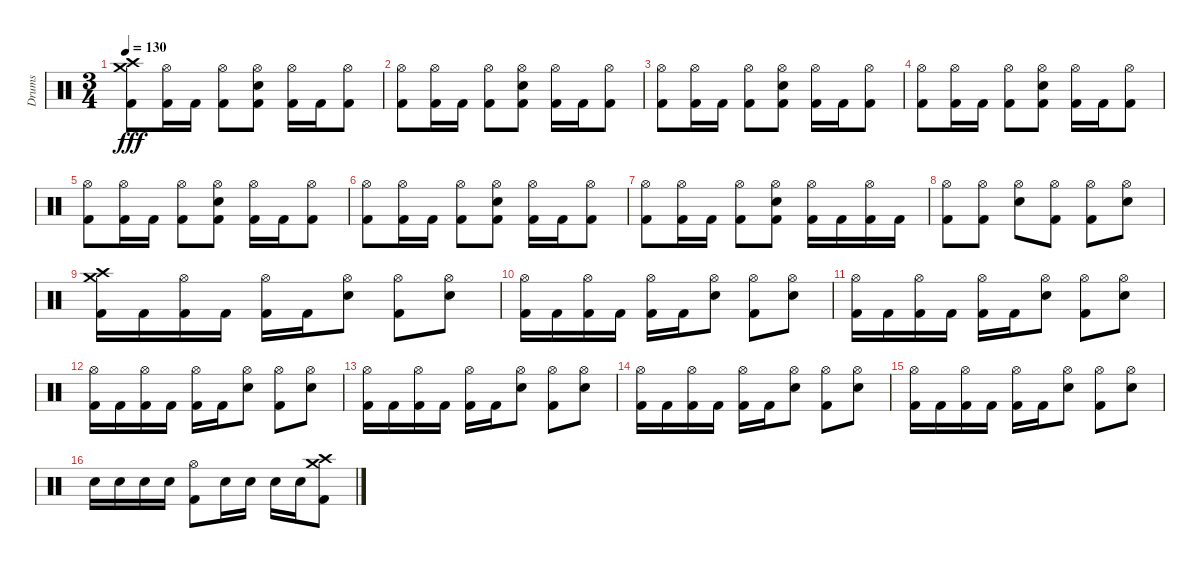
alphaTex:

\track ("Drums" "Drums") {instrument percussion}
\staff {score}
\articulation defaults
\ts (3 4)
\tempo 130
\clef neutral
\ks c
("Kick (hit) 2" "Crash medium (hit)" "Crash high (hit)").8{dy fff} ("Kick (hit) 2" "Hi-Hat (open)").16 "Kick (hit) 2".16 ("Kick (hit) 2" "Hi-Hat (open)").8 ("Kick (hit) 2" "Electric Snare (hit)" "Hi-Hat (open)").8 ("Kick (hit) 2" "Hi-Hat (open)").16 "Kick (hit) 2".16 ("Kick (hit) 2" "Hi-Hat (open)").8 |
("Kick (hit) 2" "Hi-Hat (open)").8 ("Kick (hit) 2" "Hi-Hat (open)").16 "Kick (hit) 2".16 ("Kick (hit) 2" "Hi-Hat (open)").8 ("Kick (hit) 2" "Electric Snare (hit)" "Hi-Hat (open)").8 ("Kick (hit) 2" "Hi-Hat (open)").16 "Kick (hit) 2".16 ("Kick (hit) 2" "Hi-Hat (open)").8 |
("Kick (hit) 2" "Hi-Hat (open)").8 ("Kick (hit) 2" "Hi-Hat (open)").16 "Kick (hit) 2".16 ("Kick (hit) 2" "Hi-Hat (open)").8 ("Kick (hit) 2" "Electric Snare (hit)" "Hi-Hat (open)").8 ("Kick (hit) 2" "Hi-Hat (open)").16 "Kick (hit) 2".16 ("Kick (hit) 2" "Hi-Hat (open)").8 |
("Kick (hit) 2" "Hi-Hat (open)").8 ("Kick (hit) 2" "Hi-Hat (open)").16 "Kick (hit) 2".16 ("Kick (hit) 2" "Hi-Hat (open)").8 ("Kick (hit) 2" "Electric Snare (hit)" "Hi-Hat (open)").8 ("Kick (hit) 2" "Hi-Hat (open)").16 "Kick (hit) 2".16 ("Kick (hit) 2" "Hi-Hat (open)").8 |
("Kick (hit) 2" "Hi-Hat (open)").8 ("Kick (hit) 2" "Hi-Hat (open)").16 "Kick (hit) 2".16 ("Kick (hit) 2" "Hi-Hat (open)").8 ("Kick (hit) 2" "Electric Snare (hit)" "Hi-Hat (open)").8 ("Kick (hit) 2" "Hi-Hat (open)").16 "Kick (hit) 2".16 ("Kick (hit) 2" "Hi-Hat (open)").8 |
("Kick (hit) 2" "Hi-Hat (open)").8 ("Kick (hit) 2" "Hi-Hat (open)").16 "Kick (hit) 2".16 ("Kick (hit) 2" "Hi-Hat (open)").8 ("Kick (hit) 2" "Electric Snare (hit)" "Hi-Hat (open)").8 ("Kick (hit) 2" "Hi-Hat (open)").16 "Kick (hit) 2".16 ("Kick (hit) 2" "Hi-Hat (open)").8 |
("Kick (hit) 2" "Hi-Hat (open)").8 ("Kick (hit) 2" "Hi-Hat (open)").16 "Kick (hit) 2".16 ("Kick (hit) 2" "Hi-Hat (open)").8 ("Kick (hit) 2" "Electric Snare (hit)" "Hi-Hat (open)").8 ("Kick (hit) 2" "Hi-Hat (open)").16 "Kick (hit) 2".16 ("Kick (hit) 2" "Hi-Hat (open)").16 "Kick (hit) 2".16 |
("Kick (hit) 2" "Hi-Hat (open)").8 ("Kick (hit) 2" "Hi-Hat (open)").8 ("Electric Snare (hit)" "Hi-Hat (open)").8 ("Kick (hit) 2" "Hi-Hat (open)").8 ("Kick (hit) 2" "Hi-Hat (open)").8 ("Electric Snare (hit)" "Hi-Hat (open)").8 |
("Kick (hit) 2" "Crash medium (hit)" "Crash high (hit)").16 "Kick (hit) 2".16 ("Kick (hit) 2" "Hi-Hat (open)").16 "Kick (hit) 2".16 ("Kick (hit) 2" "Hi-Hat (open)").16 "Kick (hit) 2".16 ("Electric Snare (hit)" "Hi-Hat (open)").8 ("Kick (hit) 2" "Hi-Hat (open)").8 ("Electric Snare (hit)" "Hi-Hat (open)").8 |
("Kick (hit) 2" "Hi-Hat (open)").16 "Kick (hit) 2".16 ("Kick (hit) 2" "Hi-Hat (open)").16 "Kick (hit) 2".16 ("Kick (hit) 2" "Hi-Hat (open)").16 "Kick (hit) 2".16 ("Electric Snare (hit)" "Hi-Hat (open)").8 ("Kick (hit) 2" "Hi-Hat (open)").8 ("Electric Snare (hit)" "Hi-Hat (open)").8 |
("Kick (hit) 2" "Hi-Hat (open)").16 "Kick (hit) 2".16 ("Kick (hit) 2" "Hi-Hat (open)").16 "Kick (hit) 2".16 ("Kick (hit) 2" "Hi-Hat (open)").16 "Kick (hit) 2".16 ("Electric Snare (hit)" "Hi-Hat (open)").8 ("Kick (hit) 2" "Hi-Hat (open)").8 ("Electric Snare (hit)" "Hi-Hat (open)").8 |
("Kick (hit) 2" "Hi-Hat (open)").16 "Kick (hit) 2".16 ("Kick (hit) 2" "Hi-Hat (open)").16 "Kick (hit) 2".16 ("Kick (hit) 2" "Hi-Hat (open)").16 "Kick (hit) 2".16 ("Electric Snare (hit)" "Hi-Hat (open)").8 ("Kick (hit) 2" "Hi-Hat (open)").8 ("Electric Snare (hit)" "Hi-Hat (open)").8 |
("Kick (hit) 2" "Hi-Hat (open)").16 "Kick (hit) 2".16 ("Kick (hit) 2" "Hi-Hat (open)").16 "Kick (hit) 2".16 ("Kick (hit) 2" "Hi-Hat (open)").16 "Kick (hit) 2".16 ("Electric Snare (hit)" "Hi-Hat (open)").8 ("Kick (hit) 2" "Hi-Hat (open)").8 ("Electric Snare (hit)" "Hi-Hat (open)").8 |
("Kick (hit) 2" "Hi-Hat (open)").16 "Kick (hit) 2".16 ("Kick (hit) 2" "Hi-Hat (open)").16 "Kick (hit) 2".16 ("Kick (hit) 2" "Hi-Hat (open)").16 "Kick (hit) 2".16 ("Electric Snare (hit)" "Hi-Hat (open)").8 ("Kick (hit) 2" "Hi-Hat (open)").8 ("Electric Snare (hit)" "Hi-Hat (open)").8 |
("Kick (hit) 2" "Hi-Hat (open)").16 "Kick (hit) 2".16 ("Kick (hit) 2" "Hi-Hat (open)").16 "Kick (hit) 2".16 ("Kick (hit) 2" "Hi-Hat (open)").16 "Kick (hit) 2".16 ("Electric Snare (hit)" "Hi-Hat (open)").8 ("Kick (hit) 2" "Hi-Hat (open)").8 ("Electric Snare (hit)" "Hi-Hat (open)").8 |
"Electric Snare (hit)".16 "Electric Snare (hit)".16 "Electric Snare (hit)".16 "Electric Snare (hit)".16 ("Kick (hit) 2" "Hi-Hat (open)").8 "Electric Snare (hit)".16 "Electric Snare (hit)".16 "Electric Snare (hit)".16 "Electric Snare (hit)".16 ("Kick (hit) 2" "Crash medium (hit)" "Crash high (hit)").8
